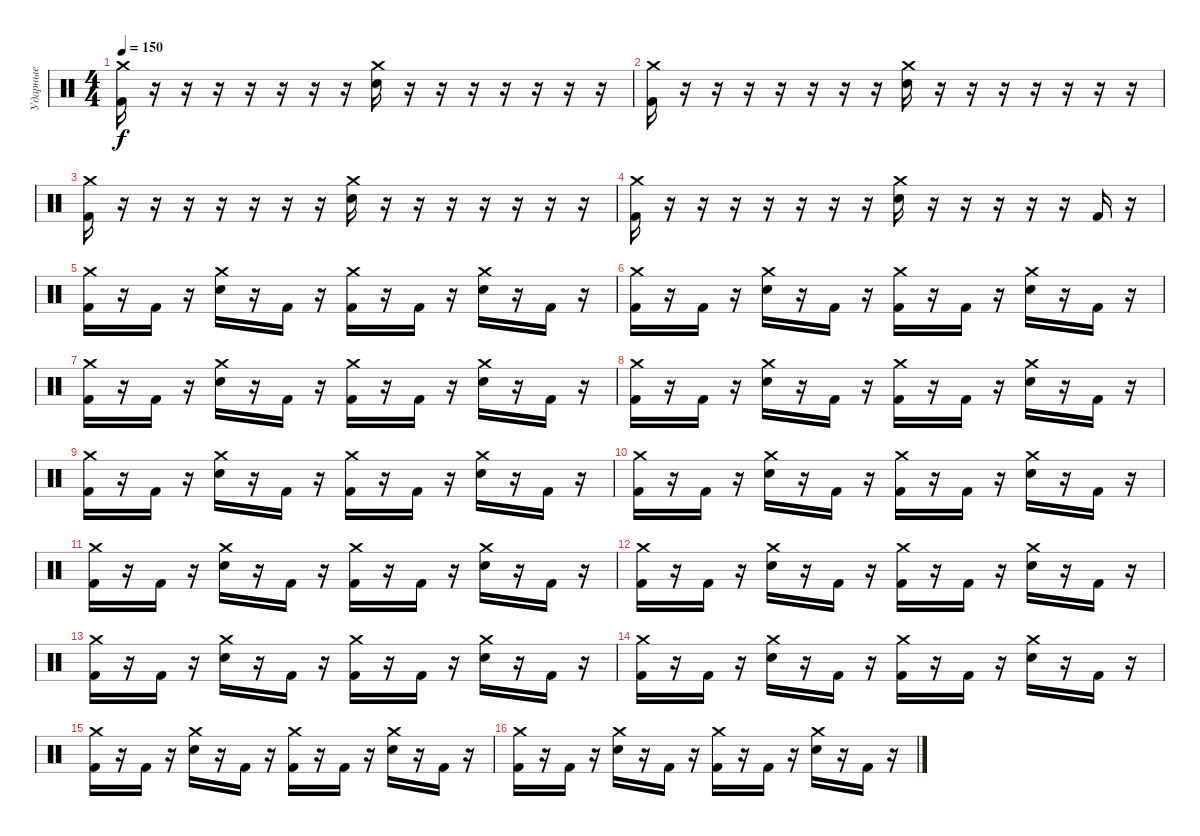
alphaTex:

\track ("Ударные" "Ударные") {instrument percussion}
\staff {score}
\articulation defaults
\ts (4 4)
\tempo 150
\clef neutral
\ks c
("Crash medium (hit)" "Kick (hit) 2").16{dy f} r.16 r.16 r.16 r.16 r.16 r.16 r.16 ("Crash medium (hit)" "Electric Snare (hit)").16 r.16 r.16 r.16 r.16 r.16 r.16 r.16 |
("Crash medium (hit)" "Kick (hit) 2").16 r.16 r.16 r.16 r.16 r.16 r.16 r.16 ("Crash medium (hit)" "Electric Snare (hit)").16 r.16 r.16 r.16 r.16 r.16 r.16 r.16 |
("Crash medium (hit)" "Kick (hit) 2").16 r.16 r.16 r.16 r.16 r.16 r.16 r.16 ("Crash medium (hit)" "Electric Snare (hit)").16 r.16 r.16 r.16 r.16 r.16 r.16 r.16 |
("Crash medium (hit)" "Kick (hit) 2").16 r.16 r.16 r.16 r.16 r.16 r.16 r.16 ("Crash medium (hit)" "Electric Snare (hit)").16 r.16 r.16 r.16 r.16 r.16 "Kick (hit) 2".16 r.16 |
("Crash medium (hit)" "Kick (hit) 2").16 r.16 "Kick (hit) 2".16 r.16 ("Crash medium (hit)" "Electric Snare (hit)").16 r.16 "Kick (hit) 2".16 r.16 ("Crash medium (hit)" "Kick (hit) 2").16 r.16 "Kick (hit) 2".16 r.16 ("Crash medium (hit)" "Electric Snare (hit)").16 r.16 "Kick (hit) 2".16 r.16 |
("Crash medium (hit)" "Kick (hit) 2").16 r.16 "Kick (hit) 2".16 r.16 ("Crash medium (hit)" "Electric Snare (hit)").16 r.16 "Kick (hit) 2".16 r.16 ("Crash medium (hit)" "Kick (hit) 2").16 r.16 "Kick (hit) 2".16 r.16 ("Crash medium (hit)" "Electric Snare (hit)").16 r.16 "Kick (hit) 2".16 r.16 |
("Crash medium (hit)" "Kick (hit) 2").16 r.16 "Kick (hit) 2".16 r.16 ("Crash medium (hit)" "Electric Snare (hit)").16 r.16 "Kick (hit) 2".16 r.16 ("Crash medium (hit)" "Kick (hit) 2").16 r.16 "Kick (hit) 2".16 r.16 ("Crash medium (hit)" "Electric Snare (hit)").16 r.16 "Kick (hit) 2".16 r.16 |
("Crash medium (hit)" "Kick (hit) 2").16 r.16 "Kick (hit) 2".16 r.16 ("Crash medium (hit)" "Electric Snare (hit)").16 r.16 "Kick (hit) 2".16 r.16 ("Crash medium (hit)" "Kick (hit) 2").16 r.16 "Kick (hit) 2".16 r.16 ("Crash medium (hit)" "Electric Snare (hit)").16 r.16 "Kick (hit) 2".16 r.16 |
("Crash medium (hit)" "Kick (hit) 2").16 r.16 "Kick (hit) 2".16 r.16 ("Crash medium (hit)" "Electric Snare (hit)").16 r.16 "Kick (hit) 2".16 r.16 ("Crash medium (hit)" "Kick (hit) 2").16 r.16 "Kick (hit) 2".16 r.16 ("Crash medium (hit)" "Electric Snare (hit)").16 r.16 "Kick (hit) 2".16 r.16 |
("Crash medium (hit)" "Kick (hit) 2").16 r.16 "Kick (hit) 2".16 r.16 ("Crash medium (hit)" "Electric Snare (hit)").16 r.16 "Kick (hit) 2".16 r.16 ("Crash medium (hit)" "Kick (hit) 2").16 r.16 "Kick (hit) 2".16 r.16 ("Crash medium (hit)" "Electric Snare (hit)").16 r.16 "Kick (hit) 2".16 r.16 |
("Crash medium (hit)" "Kick (hit) 2").16 r.16 "Kick (hit) 2".16 r.16 ("Crash medium (hit)" "Electric Snare (hit)").16 r.16 "Kick (hit) 2".16 r.16 ("Crash medium (hit)" "Kick (hit) 2").16 r.16 "Kick (hit) 2".16 r.16 ("Crash medium (hit)" "Electric Snare (hit)").16 r.16 "Kick (hit) 2".16 r.16 |
("Crash medium (hit)" "Kick (hit) 2").16 r.16 "Kick (hit) 2".16 r.16 ("Crash medium (hit)" "Electric Snare (hit)").16 r.16 "Kick (hit) 2".16 r.16 ("Crash medium (hit)" "Kick (hit) 2").16 r.16 "Kick (hit) 2".16 r.16 ("Crash medium (hit)" "Electric Snare (hit)").16 r.16 "Kick (hit) 2".16 r.16 |
("Crash medium (hit)" "Kick (hit) 2").16 r.16 "Kick (hit) 2".16 r.16 ("Crash medium (hit)" "Electric Snare (hit)").16 r.16 "Kick (hit) 2".16 r.16 ("Crash medium (hit)" "Kick (hit) 2").16 r.16 "Kick (hit) 2".16 r.16 ("Crash medium (hit)" "Electric Snare (hit)").16 r.16 "Kick (hit) 2".16 r.16 |
("Crash medium (hit)" "Kick (hit) 2").16 r.16 "Kick (hit) 2".16 r.16 ("Crash medium (hit)" "Electric Snare (hit)").16 r.16 "Kick (hit) 2".16 r.16 ("Crash medium (hit)" "Kick (hit) 2").16 r.16 "Kick (hit) 2".16 r.16 ("Crash medium (hit)" "Electric Snare (hit)").16 r.16 "Kick (hit) 2".16 r.16 |
("Crash medium (hit)" "Kick (hit) 2").16 r.16 "Kick (hit) 2".16 r.16 ("Crash medium (hit)" "Electric Snare (hit)").16 r.16 "Kick (hit) 2".16 r.16 ("Crash medium (hit)" "Kick (hit) 2").16 r.16 "Kick (hit) 2".16 r.16 ("Crash medium (hit)" "Electric Snare (hit)").16 r.16 "Kick (hit) 2".16 r.16 |
("Crash medium (hit)" "Kick (hit) 2").16 r.16 "Kick (hit) 2".16 r.16 ("Crash medium (hit)" "Electric Snare (hit)").16 r.16 "Kick (hit) 2".16 r.16 ("Crash medium (hit)" "Kick (hit) 2").16 r.16 "Kick (hit) 2".16 r.16 ("Crash medium (hit)" "Electric Snare (hit)").16 r.16 "Kick (hit) 2".16 r.16
